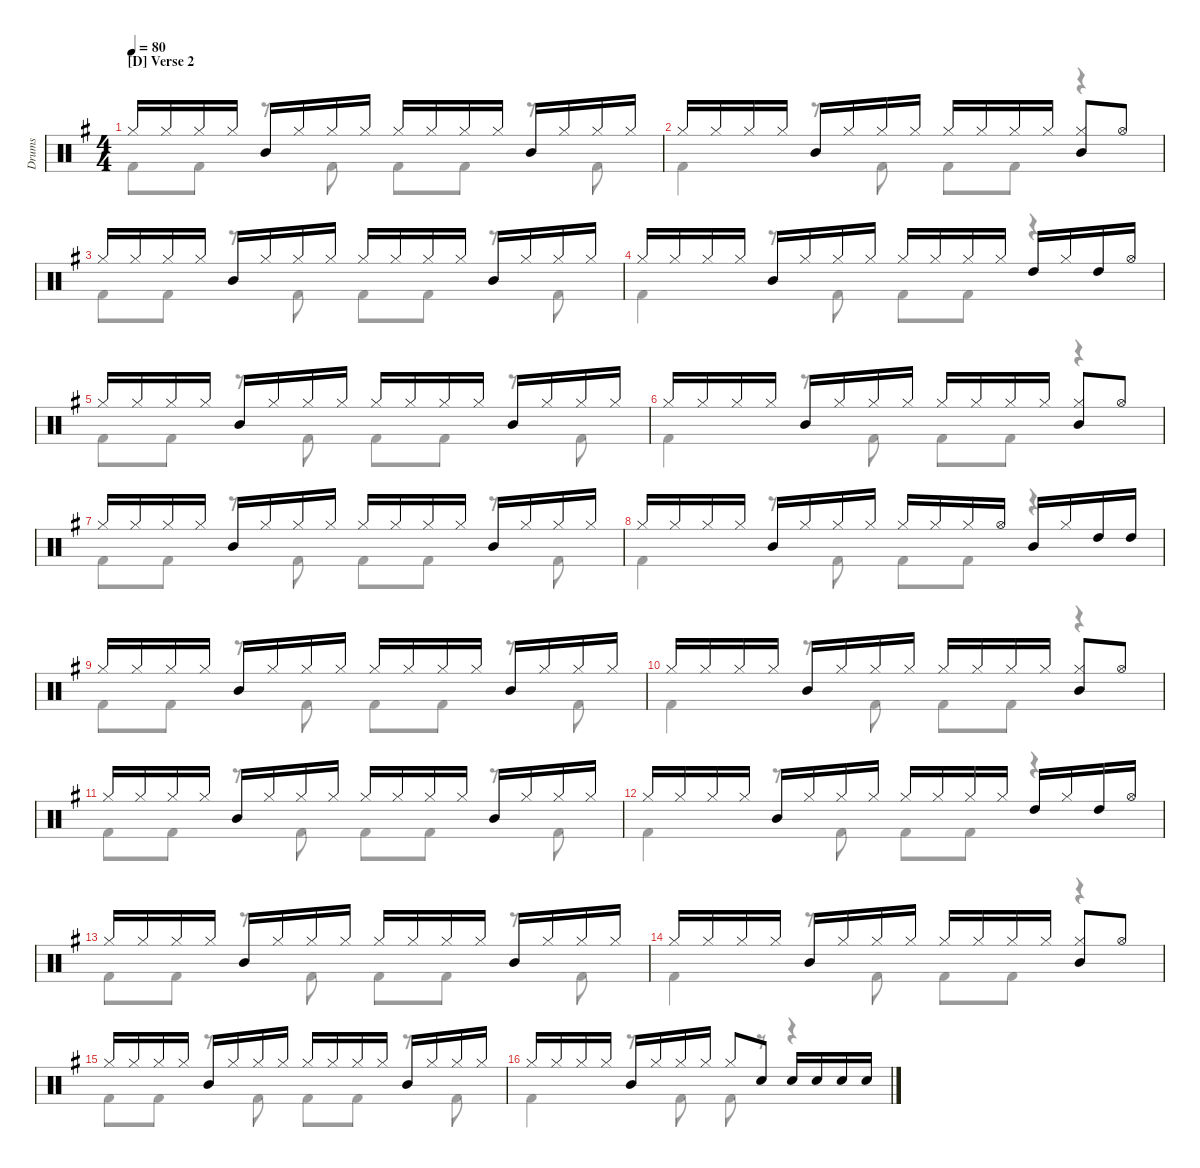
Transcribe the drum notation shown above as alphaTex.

\hideDynamics
\bracketExtendMode nobrackets
\otherSystemsTrackNameOrientation horizontal
\track ("Drums" "Drums") {defaultSystemsLayout 4 multiBarRest instrument percussion}
\staff {score}
\articulation defaults
\voice
\ts (4 4)
\section ("D" "Verse 2")
\tempo 80
\clef neutral
\ks g "Hi-Hat (closed)"{acc forcenatural}.16{dy f beam Up} "Hi-Hat (closed)"{acc forcenatural}.16{beam Up} "Hi-Hat (closed)"{acc forcenatural}.16{beam Up} "Hi-Hat (closed)"{acc forcenatural}.16{beam Up} "Mid Tom (hit)"{acc forcenatural}.16{beam Up} "Hi-Hat (closed)"{acc forcenatural}.16{beam Up} "Hi-Hat (closed)"{acc forcenatural}.16{beam Up} "Hi-Hat (closed)"{acc forcenatural}.16{beam Up} "Hi-Hat (closed)"{acc forcenatural}.16{beam Up} "Hi-Hat (closed)"{acc forcenatural}.16{beam Up} "Hi-Hat (closed)"{acc forcenatural}.16{beam Up} "Hi-Hat (closed)"{acc forcenatural}.16{beam Up} "Mid Tom (hit)"{acc forcenatural}.16{beam Up} "Hi-Hat (closed)"{acc forcenatural}.16{beam Up} "Hi-Hat (closed)"{acc forcenatural}.16{beam Up} "Hi-Hat (closed)"{acc forcenatural}.16{beam Up}
|
"Hi-Hat (closed)"{acc forcenatural}.16{beam Up} "Hi-Hat (closed)"{acc forcenatural}.16{beam Up} "Hi-Hat (closed)"{acc forcenatural}.16{beam Up} "Hi-Hat (closed)"{acc forcenatural}.16{beam Up} "Mid Tom (hit)"{acc forcenatural}.16{beam Up} "Hi-Hat (closed)"{acc forcenatural}.16{beam Up} "Hi-Hat (closed)"{acc forcenatural}.16{beam Up} "Hi-Hat (closed)"{acc forcenatural}.16{beam Up} "Hi-Hat (closed)"{acc forcenatural}.16{beam Up} "Hi-Hat (closed)"{acc forcenatural}.16{beam Up} "Hi-Hat (closed)"{acc forcenatural}.16{beam Up} "Hi-Hat (closed)"{acc forcenatural}.16{beam Up} ("Hi-Hat (closed)"{acc forcenatural} "Mid Tom (hit)"{acc forcenatural}).8{beam Up} "Hi-Hat (open)"{acc forcenatural}.8{beam Up} |
"Hi-Hat (closed)"{acc forcenatural}.16{beam Up} "Hi-Hat (closed)"{acc forcenatural}.16{beam Up} "Hi-Hat (closed)"{acc forcenatural}.16{beam Up} "Hi-Hat (closed)"{acc forcenatural}.16{beam Up} "Mid Tom (hit)"{acc forcenatural}.16{beam Up} "Hi-Hat (closed)"{acc forcenatural}.16{beam Up} "Hi-Hat (closed)"{acc forcenatural}.16{beam Up} "Hi-Hat (closed)"{acc forcenatural}.16{beam Up} "Hi-Hat (closed)"{acc forcenatural}.16{beam Up} "Hi-Hat (closed)"{acc forcenatural}.16{beam Up} "Hi-Hat (closed)"{acc forcenatural}.16{beam Up} "Hi-Hat (closed)"{acc forcenatural}.16{beam Up} "Mid Tom (hit)"{acc forcenatural}.16{beam Up} "Hi-Hat (closed)"{acc forcenatural}.16{beam Up} "Hi-Hat (closed)"{acc forcenatural}.16{beam Up} "Hi-Hat (closed)"{acc forcenatural}.16{beam Up} |
"Hi-Hat (closed)"{acc forcenatural}.16{beam Up} "Hi-Hat (closed)"{acc forcenatural}.16{beam Up} "Hi-Hat (closed)"{acc forcenatural}.16{beam Up} "Hi-Hat (closed)"{acc forcenatural}.16{beam Up} "Mid Tom (hit)"{acc forcenatural}.16{beam Up} "Hi-Hat (closed)"{acc forcenatural}.16{beam Up} "Hi-Hat (closed)"{acc forcenatural}.16{beam Up} "Hi-Hat (closed)"{acc forcenatural}.16{beam Up} "Hi-Hat (closed)"{acc forcenatural}.16{beam Up} "Hi-Hat (closed)"{acc forcenatural}.16{beam Up} "Hi-Hat (closed)"{acc forcenatural}.16{beam Up} "Hi-Hat (closed)"{acc forcenatural}.16{beam Up} "High Tom (hit)"{acc forcenatural}.16{beam Up} "Hi-Hat (closed)"{acc forcenatural}.16{beam Up} "High Tom (hit)"{acc forcenatural}.16{beam Up} "Hi-Hat (open)"{acc forcenatural}.16{beam Up} |
"Hi-Hat (closed)"{acc forcenatural}.16{beam Up} "Hi-Hat (closed)"{acc forcenatural}.16{beam Up} "Hi-Hat (closed)"{acc forcenatural}.16{beam Up} "Hi-Hat (closed)"{acc forcenatural}.16{beam Up} "Mid Tom (hit)"{acc forcenatural}.16{beam Up} "Hi-Hat (closed)"{acc forcenatural}.16{beam Up} "Hi-Hat (closed)"{acc forcenatural}.16{beam Up} "Hi-Hat (closed)"{acc forcenatural}.16{beam Up} "Hi-Hat (closed)"{acc forcenatural}.16{beam Up} "Hi-Hat (closed)"{acc forcenatural}.16{beam Up} "Hi-Hat (closed)"{acc forcenatural}.16{beam Up} "Hi-Hat (closed)"{acc forcenatural}.16{beam Up} "Mid Tom (hit)"{acc forcenatural}.16{beam Up} "Hi-Hat (closed)"{acc forcenatural}.16{beam Up} "Hi-Hat (closed)"{acc forcenatural}.16{beam Up} "Hi-Hat (closed)"{acc forcenatural}.16{beam Up} |
"Hi-Hat (closed)"{acc forcenatural}.16{beam Up} "Hi-Hat (closed)"{acc forcenatural}.16{beam Up} "Hi-Hat (closed)"{acc forcenatural}.16{beam Up} "Hi-Hat (closed)"{acc forcenatural}.16{beam Up} "Mid Tom (hit)"{acc forcenatural}.16{beam Up} "Hi-Hat (closed)"{acc forcenatural}.16{beam Up} "Hi-Hat (closed)"{acc forcenatural}.16{beam Up} "Hi-Hat (closed)"{acc forcenatural}.16{beam Up} "Hi-Hat (closed)"{acc forcenatural}.16{beam Up} "Hi-Hat (closed)"{acc forcenatural}.16{beam Up} "Hi-Hat (closed)"{acc forcenatural}.16{beam Up} "Hi-Hat (closed)"{acc forcenatural}.16{beam Up} ("Hi-Hat (closed)"{acc forcenatural} "Mid Tom (hit)"{acc forcenatural}).8{beam Up} "Hi-Hat (open)"{acc forcenatural}.8{beam Up} |
"Hi-Hat (closed)"{acc forcenatural}.16{beam Up} "Hi-Hat (closed)"{acc forcenatural}.16{beam Up} "Hi-Hat (closed)"{acc forcenatural}.16{beam Up} "Hi-Hat (closed)"{acc forcenatural}.16{beam Up} "Mid Tom (hit)"{acc forcenatural}.16{beam Up} "Hi-Hat (closed)"{acc forcenatural}.16{beam Up} "Hi-Hat (closed)"{acc forcenatural}.16{beam Up} "Hi-Hat (closed)"{acc forcenatural}.16{beam Up} "Hi-Hat (closed)"{acc forcenatural}.16{beam Up} "Hi-Hat (closed)"{acc forcenatural}.16{beam Up} "Hi-Hat (closed)"{acc forcenatural}.16{beam Up} "Hi-Hat (closed)"{acc forcenatural}.16{beam Up} "Mid Tom (hit)"{acc forcenatural}.16{beam Up} "Hi-Hat (closed)"{acc forcenatural}.16{beam Up} "Hi-Hat (closed)"{acc forcenatural}.16{beam Up} "Hi-Hat (closed)"{acc forcenatural}.16{beam Up} |
"Hi-Hat (closed)"{acc forcenatural}.16{beam Up} "Hi-Hat (closed)"{acc forcenatural}.16{beam Up} "Hi-Hat (closed)"{acc forcenatural}.16{beam Up} "Hi-Hat (closed)"{acc forcenatural}.16{beam Up} "Mid Tom (hit)"{acc forcenatural}.16{beam Up} "Hi-Hat (closed)"{acc forcenatural}.16{beam Up} "Hi-Hat (closed)"{acc forcenatural}.16{beam Up} "Hi-Hat (closed)"{acc forcenatural}.16{beam Up} "Hi-Hat (closed)"{acc forcenatural}.16{beam Up} "Hi-Hat (closed)"{acc forcenatural}.16{beam Up} "Hi-Hat (closed)"{acc forcenatural}.16{beam Up} "Hi-Hat (open)"{acc forcenatural}.16{beam Up} "Mid Tom (hit)"{acc forcenatural}.16{beam Up} "Hi-Hat (closed)"{acc forcenatural}.16{beam Up} "High Tom (hit)"{acc forcenatural}.16{beam Up} "High Tom (hit)"{acc forcenatural}.16{beam Up} |
"Hi-Hat (closed)"{acc forcenatural}.16{beam Up} "Hi-Hat (closed)"{acc forcenatural}.16{beam Up} "Hi-Hat (closed)"{acc forcenatural}.16{beam Up} "Hi-Hat (closed)"{acc forcenatural}.16{beam Up} "Mid Tom (hit)"{acc forcenatural}.16{beam Up} "Hi-Hat (closed)"{acc forcenatural}.16{beam Up} "Hi-Hat (closed)"{acc forcenatural}.16{beam Up} "Hi-Hat (closed)"{acc forcenatural}.16{beam Up} "Hi-Hat (closed)"{acc forcenatural}.16{beam Up} "Hi-Hat (closed)"{acc forcenatural}.16{beam Up} "Hi-Hat (closed)"{acc forcenatural}.16{beam Up} "Hi-Hat (closed)"{acc forcenatural}.16{beam Up} "Mid Tom (hit)"{acc forcenatural}.16{beam Up} "Hi-Hat (closed)"{acc forcenatural}.16{beam Up} "Hi-Hat (closed)"{acc forcenatural}.16{beam Up} "Hi-Hat (closed)"{acc forcenatural}.16{beam Up} |
"Hi-Hat (closed)"{acc forcenatural}.16{beam Up} "Hi-Hat (closed)"{acc forcenatural}.16{beam Up} "Hi-Hat (closed)"{acc forcenatural}.16{beam Up} "Hi-Hat (closed)"{acc forcenatural}.16{beam Up} "Mid Tom (hit)"{acc forcenatural}.16{beam Up} "Hi-Hat (closed)"{acc forcenatural}.16{beam Up} "Hi-Hat (closed)"{acc forcenatural}.16{beam Up} "Hi-Hat (closed)"{acc forcenatural}.16{beam Up} "Hi-Hat (closed)"{acc forcenatural}.16{beam Up} "Hi-Hat (closed)"{acc forcenatural}.16{beam Up} "Hi-Hat (closed)"{acc forcenatural}.16{beam Up} "Hi-Hat (closed)"{acc forcenatural}.16{beam Up} ("Hi-Hat (closed)"{acc forcenatural} "Mid Tom (hit)"{acc forcenatural}).8{beam Up} "Hi-Hat (open)"{acc forcenatural}.8{beam Up} |
"Hi-Hat (closed)"{acc forcenatural}.16{beam Up} "Hi-Hat (closed)"{acc forcenatural}.16{beam Up} "Hi-Hat (closed)"{acc forcenatural}.16{beam Up} "Hi-Hat (closed)"{acc forcenatural}.16{beam Up} "Mid Tom (hit)"{acc forcenatural}.16{beam Up} "Hi-Hat (closed)"{acc forcenatural}.16{beam Up} "Hi-Hat (closed)"{acc forcenatural}.16{beam Up} "Hi-Hat (closed)"{acc forcenatural}.16{beam Up} "Hi-Hat (closed)"{acc forcenatural}.16{beam Up} "Hi-Hat (closed)"{acc forcenatural}.16{beam Up} "Hi-Hat (closed)"{acc forcenatural}.16{beam Up} "Hi-Hat (closed)"{acc forcenatural}.16{beam Up} "Mid Tom (hit)"{acc forcenatural}.16{beam Up} "Hi-Hat (closed)"{acc forcenatural}.16{beam Up} "Hi-Hat (closed)"{acc forcenatural}.16{beam Up} "Hi-Hat (closed)"{acc forcenatural}.16{beam Up} |
"Hi-Hat (closed)"{acc forcenatural}.16{beam Up} "Hi-Hat (closed)"{acc forcenatural}.16{beam Up} "Hi-Hat (closed)"{acc forcenatural}.16{beam Up} "Hi-Hat (closed)"{acc forcenatural}.16{beam Up} "Mid Tom (hit)"{acc forcenatural}.16{beam Up} "Hi-Hat (closed)"{acc forcenatural}.16{beam Up} "Hi-Hat (closed)"{acc forcenatural}.16{beam Up} "Hi-Hat (closed)"{acc forcenatural}.16{beam Up} "Hi-Hat (closed)"{acc forcenatural}.16{beam Up} "Hi-Hat (closed)"{acc forcenatural}.16{beam Up} "Hi-Hat (closed)"{acc forcenatural}.16{beam Up} "Hi-Hat (closed)"{acc forcenatural}.16{beam Up} "High Tom (hit)"{acc forcenatural}.16{beam Up} "Hi-Hat (closed)"{acc forcenatural}.16{beam Up} "High Tom (hit)"{acc forcenatural}.16{beam Up} "Hi-Hat (open)"{acc forcenatural}.16{beam Up} |
"Hi-Hat (closed)"{acc forcenatural}.16{beam Up} "Hi-Hat (closed)"{acc forcenatural}.16{beam Up} "Hi-Hat (closed)"{acc forcenatural}.16{beam Up} "Hi-Hat (closed)"{acc forcenatural}.16{beam Up} "Mid Tom (hit)"{acc forcenatural}.16{beam Up} "Hi-Hat (closed)"{acc forcenatural}.16{beam Up} "Hi-Hat (closed)"{acc forcenatural}.16{beam Up} "Hi-Hat (closed)"{acc forcenatural}.16{beam Up} "Hi-Hat (closed)"{acc forcenatural}.16{beam Up} "Hi-Hat (closed)"{acc forcenatural}.16{beam Up} "Hi-Hat (closed)"{acc forcenatural}.16{beam Up} "Hi-Hat (closed)"{acc forcenatural}.16{beam Up} "Mid Tom (hit)"{acc forcenatural}.16{beam Up} "Hi-Hat (closed)"{acc forcenatural}.16{beam Up} "Hi-Hat (closed)"{acc forcenatural}.16{beam Up} "Hi-Hat (closed)"{acc forcenatural}.16{beam Up} |
"Hi-Hat (closed)"{acc forcenatural}.16{beam Up} "Hi-Hat (closed)"{acc forcenatural}.16{beam Up} "Hi-Hat (closed)"{acc forcenatural}.16{beam Up} "Hi-Hat (closed)"{acc forcenatural}.16{beam Up} "Mid Tom (hit)"{acc forcenatural}.16{beam Up} "Hi-Hat (closed)"{acc forcenatural}.16{beam Up} "Hi-Hat (closed)"{acc forcenatural}.16{beam Up} "Hi-Hat (closed)"{acc forcenatural}.16{beam Up} "Hi-Hat (closed)"{acc forcenatural}.16{beam Up} "Hi-Hat (closed)"{acc forcenatural}.16{beam Up} "Hi-Hat (closed)"{acc forcenatural}.16{beam Up} "Hi-Hat (closed)"{acc forcenatural}.16{beam Up} ("Hi-Hat (closed)"{acc forcenatural} "Mid Tom (hit)"{acc forcenatural}).8{beam Up} "Hi-Hat (open)"{acc forcenatural}.8{beam Up} |
"Hi-Hat (closed)"{acc forcenatural}.16{beam Up} "Hi-Hat (closed)"{acc forcenatural}.16{beam Up} "Hi-Hat (closed)"{acc forcenatural}.16{beam Up} "Hi-Hat (closed)"{acc forcenatural}.16{beam Up} "Mid Tom (hit)"{acc forcenatural}.16{beam Up} "Hi-Hat (closed)"{acc forcenatural}.16{beam Up} "Hi-Hat (closed)"{acc forcenatural}.16{beam Up} "Hi-Hat (closed)"{acc forcenatural}.16{beam Up} "Hi-Hat (closed)"{acc forcenatural}.16{beam Up} "Hi-Hat (closed)"{acc forcenatural}.16{beam Up} "Hi-Hat (closed)"{acc forcenatural}.16{beam Up} "Hi-Hat (closed)"{acc forcenatural}.16{beam Up} "Mid Tom (hit)"{acc forcenatural}.16{beam Up} "Hi-Hat (closed)"{acc forcenatural}.16{beam Up} "Hi-Hat (closed)"{acc forcenatural}.16{beam Up} "Hi-Hat (closed)"{acc forcenatural}.16{beam Up} |
"Hi-Hat (closed)"{acc forcenatural}.16{beam Up} "Hi-Hat (closed)"{acc forcenatural}.16{beam Up} "Hi-Hat (closed)"{acc forcenatural}.16{beam Up} "Hi-Hat (closed)"{acc forcenatural}.16{beam Up} "Mid Tom (hit)"{acc forcenatural}.16{beam Up} "Hi-Hat (closed)"{acc forcenatural}.16{beam Up} "Hi-Hat (closed)"{acc forcenatural}.16{beam Up} "Hi-Hat (closed)"{acc forcenatural}.16{beam Up} "Hi-Hat (closed)"{acc forcenatural}.8{beam Up} "Snare (hit) 2"{acc forcenatural}.8{beam Up} "Snare (hit) 2"{acc forcenatural}.16{beam Up} "Snare (hit) 2"{acc forcenatural}.16{beam Up} "Snare (hit) 2"{acc forcenatural}.16{beam Up} "Snare (hit) 2"{acc forcenatural}.16{beam Up}
\voice
\clef neutral
\ottava regular
\simile none
\ks g "Kick (hit) 2"{acc forcenatural}.8{dy mf beam Down} "Kick (hit) 2"{acc forcenatural}.8{beam Down}
r.8{beam Down} "Kick (hit) 2"{acc forcenatural}.8{beam Down} "Kick (hit) 2"{acc forcenatural}.8{beam Down} "Kick (hit) 2"{acc forcenatural}.8{beam Down} r.8{beam Down} "Kick (hit) 2"{acc forcenatural}.8{beam Down} |
"Kick (hit) 2"{acc forcenatural}.4{beam Down} r.8{beam Down} "Kick (hit) 2"{acc forcenatural}.8{beam Down} "Kick (hit) 2"{acc forcenatural}.8{beam Down} "Kick (hit) 2"{acc forcenatural}.8{beam Down} r.4{beam Down} |
"Kick (hit) 2"{acc forcenatural}.8{beam Down} "Kick (hit) 2"{acc forcenatural}.8{beam Down} r.8{beam Down} "Kick (hit) 2"{acc forcenatural}.8{beam Down} "Kick (hit) 2"{acc forcenatural}.8{beam Down} "Kick (hit) 2"{acc forcenatural}.8{beam Down} r.8{beam Down} "Kick (hit) 2"{acc forcenatural}.8{beam Down} |
"Kick (hit) 2"{acc forcenatural}.4{beam Down} r.8{beam Down} "Kick (hit) 2"{acc forcenatural}.8{beam Down} "Kick (hit) 2"{acc forcenatural}.8{beam Down} "Kick (hit) 2"{acc forcenatural}.8{beam Down} r.4{beam Down} |
"Kick (hit) 2"{acc forcenatural}.8{beam Down} "Kick (hit) 2"{acc forcenatural}.8{beam Down} r.8{beam Down} "Kick (hit) 2"{acc forcenatural}.8{beam Down} "Kick (hit) 2"{acc forcenatural}.8{beam Down} "Kick (hit) 2"{acc forcenatural}.8{beam Down} r.8{beam Down} "Kick (hit) 2"{acc forcenatural}.8{beam Down} |
"Kick (hit) 2"{acc forcenatural}.4{beam Down} r.8{beam Down} "Kick (hit) 2"{acc forcenatural}.8{beam Down} "Kick (hit) 2"{acc forcenatural}.8{beam Down} "Kick (hit) 2"{acc forcenatural}.8{beam Down} r.4{beam Down} |
"Kick (hit) 2"{acc forcenatural}.8{beam Down} "Kick (hit) 2"{acc forcenatural}.8{beam Down} r.8{beam Down} "Kick (hit) 2"{acc forcenatural}.8{beam Down} "Kick (hit) 2"{acc forcenatural}.8{beam Down} "Kick (hit) 2"{acc forcenatural}.8{beam Down} r.8{beam Down} "Kick (hit) 2"{acc forcenatural}.8{beam Down} |
"Kick (hit) 2"{acc forcenatural}.4{beam Down} r.8{beam Down} "Kick (hit) 2"{acc forcenatural}.8{beam Down} "Kick (hit) 2"{acc forcenatural}.8{beam Down} "Kick (hit) 2"{acc forcenatural}.8{beam Down} r.4{beam Down} |
"Kick (hit) 2"{acc forcenatural}.8{beam Down} "Kick (hit) 2"{acc forcenatural}.8{beam Down} r.8{beam Down} "Kick (hit) 2"{acc forcenatural}.8{beam Down} "Kick (hit) 2"{acc forcenatural}.8{beam Down} "Kick (hit) 2"{acc forcenatural}.8{beam Down} r.8{beam Down} "Kick (hit) 2"{acc forcenatural}.8{beam Down} |
"Kick (hit) 2"{acc forcenatural}.4{beam Down} r.8{beam Down} "Kick (hit) 2"{acc forcenatural}.8{beam Down} "Kick (hit) 2"{acc forcenatural}.8{beam Down} "Kick (hit) 2"{acc forcenatural}.8{beam Down} r.4{beam Down} |
"Kick (hit) 2"{acc forcenatural}.8{beam Down} "Kick (hit) 2"{acc forcenatural}.8{beam Down} r.8{beam Down} "Kick (hit) 2"{acc forcenatural}.8{beam Down} "Kick (hit) 2"{acc forcenatural}.8{beam Down} "Kick (hit) 2"{acc forcenatural}.8{beam Down} r.8{beam Down} "Kick (hit) 2"{acc forcenatural}.8{beam Down} |
"Kick (hit) 2"{acc forcenatural}.4{beam Down} r.8{beam Down} "Kick (hit) 2"{acc forcenatural}.8{beam Down} "Kick (hit) 2"{acc forcenatural}.8{beam Down} "Kick (hit) 2"{acc forcenatural}.8{beam Down} r.4{beam Down} |
"Kick (hit) 2"{acc forcenatural}.8{beam Down} "Kick (hit) 2"{acc forcenatural}.8{beam Down} r.8{beam Down} "Kick (hit) 2"{acc forcenatural}.8{beam Down} "Kick (hit) 2"{acc forcenatural}.8{beam Down} "Kick (hit) 2"{acc forcenatural}.8{beam Down} r.8{beam Down} "Kick (hit) 2"{acc forcenatural}.8{beam Down} |
"Kick (hit) 2"{acc forcenatural}.4{beam Down} r.8{beam Down} "Kick (hit) 2"{acc forcenatural}.8{beam Down} "Kick (hit) 2"{acc forcenatural}.8{beam Down} "Kick (hit) 2"{acc forcenatural}.8{beam Down} r.4{beam Down} |
"Kick (hit) 2"{acc forcenatural}.8{beam Down} "Kick (hit) 2"{acc forcenatural}.8{beam Down} r.8{beam Down} "Kick (hit) 2"{acc forcenatural}.8{beam Down} "Kick (hit) 2"{acc forcenatural}.8{beam Down} "Kick (hit) 2"{acc forcenatural}.8{beam Down} r.8{beam Down} "Kick (hit) 2"{acc forcenatural}.8{beam Down} |
"Kick (hit) 2"{acc forcenatural}.4{beam Down} r.8{beam Down} "Kick (hit) 2"{acc forcenatural}.8{beam Down} "Kick (hit) 2"{acc forcenatural}.8{beam Down} r.8{beam Down} r.4{beam Down}
